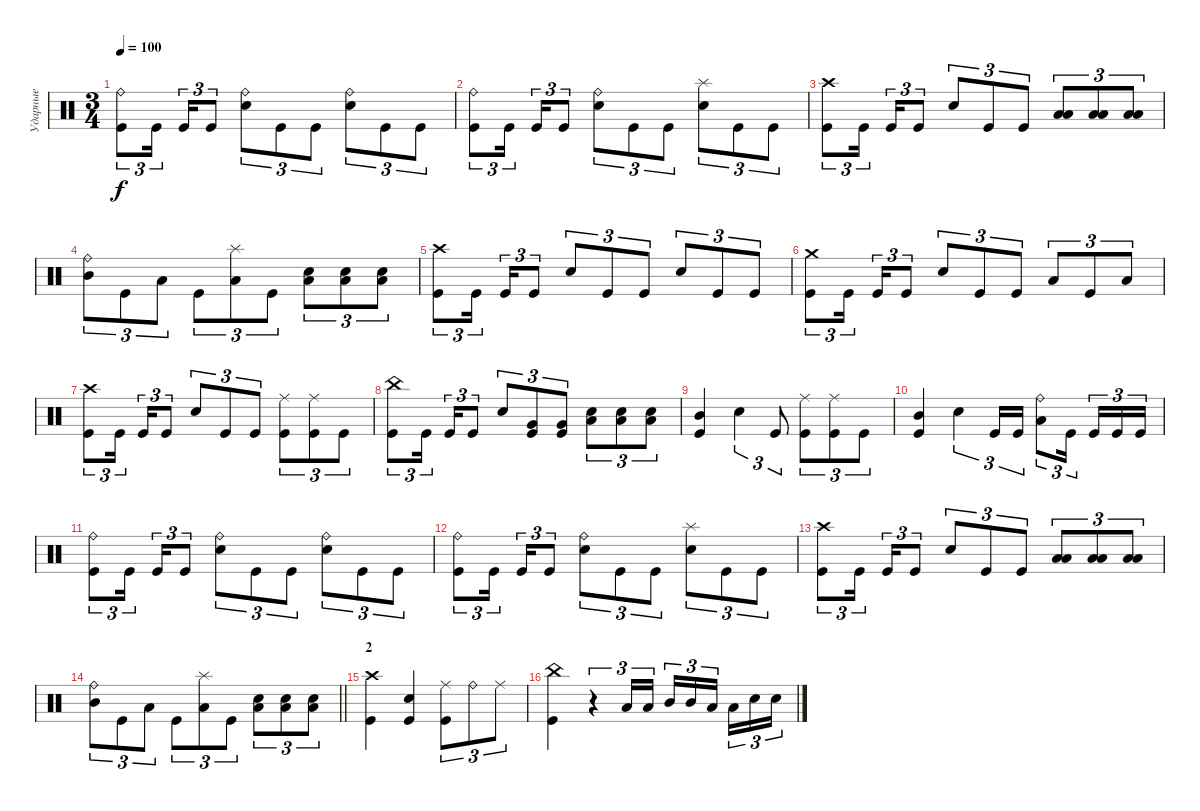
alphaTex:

\track ("Ударные" "Ударные") {instrument percussion}
\staff {score}
\articulation defaults
\ts (3 4)
\tempo 100
\clef neutral
\ks c
("Ride (bell)" "Kick (hit)").8{tu (3 2) dy f} "Kick (hit)".16{tu (3 2) beam splitsecondary} "Kick (hit)".16{tu (3 2)} "Kick (hit)".8{tu (3 2)} ("Ride (bell)" "Electric Snare (hit)").8{tu (3 2)} "Kick (hit)".8{tu (3 2)} "Kick (hit)".8{tu (3 2)} ("Ride (bell)" "Electric Snare (hit)").8{tu (3 2)} "Kick (hit)".8{tu (3 2)} "Kick (hit)".8{tu (3 2)} |
("Ride (bell)" "Kick (hit)").8{tu (3 2)} "Kick (hit)".16{tu (3 2) beam splitsecondary} "Kick (hit)".16{tu (3 2)} "Kick (hit)".8{tu (3 2)} ("Ride (bell)" "Electric Snare (hit)").8{tu (3 2)} "Kick (hit)".8{tu (3 2)} "Kick (hit)".8{tu (3 2)} ("Splash (hit)" "Electric Snare (hit)").8{tu (3 2)} "Kick (hit)".8{tu (3 2)} "Kick (hit)".8{tu (3 2)} |
("Crash high (hit)" "Kick (hit)").8{tu (3 2)} "Kick (hit)".16{tu (3 2) beam splitsecondary} "Kick (hit)".16{tu (3 2)} "Kick (hit)".8{tu (3 2)} "Electric Snare (hit)".8{tu (3 2)} "Kick (hit)".8{tu (3 2)} "Kick (hit)".8{tu (3 2)} ("Low Floor Tom (hit)" "Low Tom (hit)").8{tu (3 2)} ("Low Floor Tom (hit)" "Low Tom (hit)").8{tu (3 2)} ("Low Floor Tom (hit)" "Low Tom (hit)").8{tu (3 2)} |
("Ride (bell)" "Mid Tom (hit)").8{tu (3 2)} "Kick (hit)".8{tu (3 2)} "Low Tom (hit)".8{tu (3 2)} "Kick (hit)".8{tu (3 2)} ("Splash (hit)" "Low Floor Tom (hit)").8{tu (3 2)} "Kick (hit)".8{tu (3 2)} ("Low Floor Tom (hit)" "Electric Snare (hit)").8{tu (3 2)} ("Low Floor Tom (hit)" "Electric Snare (hit)").8{tu (3 2)} ("Low Floor Tom (hit)" "Electric Snare (hit)").8{tu (3 2)} |
("Crash high (hit)" "Kick (hit)").8{tu (3 2)} "Kick (hit)".16{tu (3 2) beam splitsecondary} "Kick (hit)".16{tu (3 2)} "Kick (hit)".8{tu (3 2)} "Electric Snare (hit)".8{tu (3 2)} "Kick (hit)".8{tu (3 2)} "Kick (hit)".8{tu (3 2)} "Electric Snare (hit)".8{tu (3 2)} "Kick (hit)".8{tu (3 2)} "Kick (hit)".8{tu (3 2)} |
("Crash medium (hit)" "Kick (hit)").8{tu (3 2)} "Kick (hit)".16{tu (3 2) beam splitsecondary} "Kick (hit)".16{tu (3 2)} "Kick (hit)".8{tu (3 2)} "Electric Snare (hit)".8{tu (3 2)} "Kick (hit)".8{tu (3 2)} "Kick (hit)".8{tu (3 2)} "Low Tom (hit)".8{tu (3 2)} "Kick (hit)".8{tu (3 2)} "Low Tom (hit)".8{tu (3 2)} |
("Crash high (hit)" "Kick (hit)").8{tu (3 2)} "Kick (hit)".16{tu (3 2) beam splitsecondary} "Kick (hit)".16{tu (3 2)} "Kick (hit)".8{tu (3 2)} "Electric Snare (hit)".8{tu (3 2)} "Kick (hit)".8{tu (3 2)} "Kick (hit)".8{tu (3 2)} ("Ride (middle)" "Kick (hit)").8{tu (3 2)} ("Ride (middle)" "Kick (hit)").8{tu (3 2)} "Kick (hit)".8{tu (3 2)} |
("China (hit)" "Kick (hit)").8{tu (3 2)} "Kick (hit)".16{tu (3 2) beam splitsecondary} "Kick (hit)".16{tu (3 2)} "Kick (hit)".8{tu (3 2)} "Electric Snare (hit)".8{tu (3 2)} ("Very Low Tom (hit)" "Kick (hit)").8{tu (3 2)} ("Very Low Tom (hit)" "Kick (hit)").8{tu (3 2)} ("Low Floor Tom (hit)" "Electric Snare (hit)").8{tu (3 2)} ("Low Floor Tom (hit)" "Electric Snare (hit)").8{tu (3 2)} ("Low Floor Tom (hit)" "Electric Snare (hit)").8{tu (3 2)} |
("Mid Tom (hit)" "Kick (hit)").4 "Electric Snare (hit)".4{tu (3 2)} "Kick (hit)".8{tu (3 2)} ("Ride (middle)" "Kick (hit)").8{tu (3 2)} ("Ride (middle)" "Kick (hit)").8{tu (3 2)} "Kick (hit)".8{tu (3 2)} |
("Mid Tom (hit)" "Kick (hit)").4 "Electric Snare (hit)".4{tu (3 2)} "Kick (hit)".16{tu (3 2)} "Kick (hit)".16{tu (3 2)} ("Ride (bell)" "Low Floor Tom (hit)").8{tu (3 2)} "Kick (hit)".16{tu (3 2) beam splitsecondary} "Kick (hit)".16{tu (3 2)} "Kick (hit)".16{tu (3 2)} "Kick (hit)".16{tu (3 2)} |
("Ride (bell)" "Kick (hit)").8{tu (3 2)} "Kick (hit)".16{tu (3 2) beam splitsecondary} "Kick (hit)".16{tu (3 2)} "Kick (hit)".8{tu (3 2)} ("Ride (bell)" "Electric Snare (hit)").8{tu (3 2)} "Kick (hit)".8{tu (3 2)} "Kick (hit)".8{tu (3 2)} ("Ride (bell)" "Electric Snare (hit)").8{tu (3 2)} "Kick (hit)".8{tu (3 2)} "Kick (hit)".8{tu (3 2)} |
("Ride (bell)" "Kick (hit)").8{tu (3 2)} "Kick (hit)".16{tu (3 2) beam splitsecondary} "Kick (hit)".16{tu (3 2)} "Kick (hit)".8{tu (3 2)} ("Ride (bell)" "Electric Snare (hit)").8{tu (3 2)} "Kick (hit)".8{tu (3 2)} "Kick (hit)".8{tu (3 2)} ("Splash (hit)" "Electric Snare (hit)").8{tu (3 2)} "Kick (hit)".8{tu (3 2)} "Kick (hit)".8{tu (3 2)} |
("Crash high (hit)" "Kick (hit)").8{tu (3 2)} "Kick (hit)".16{tu (3 2) beam splitsecondary} "Kick (hit)".16{tu (3 2)} "Kick (hit)".8{tu (3 2)} "Electric Snare (hit)".8{tu (3 2)} "Kick (hit)".8{tu (3 2)} "Kick (hit)".8{tu (3 2)} ("Low Floor Tom (hit)" "Low Tom (hit)").8{tu (3 2)} ("Low Floor Tom (hit)" "Low Tom (hit)").8{tu (3 2)} ("Low Floor Tom (hit)" "Low Tom (hit)").8{tu (3 2)} |
\barLineRight lightlight
("Ride (bell)" "Mid Tom (hit)").8{tu (3 2)} "Kick (hit)".8{tu (3 2)} "Low Tom (hit)".8{tu (3 2)} "Kick (hit)".8{tu (3 2)} ("Splash (hit)" "Low Floor Tom (hit)").8{tu (3 2)} "Kick (hit)".8{tu (3 2)} ("Low Floor Tom (hit)" "Electric Snare (hit)").8{tu (3 2)} ("Low Floor Tom (hit)" "Electric Snare (hit)").8{tu (3 2)} ("Low Floor Tom (hit)" "Electric Snare (hit)").8{tu (3 2)} |
\section ("" "2")
("Crash high (hit)" "Kick (hit)").4 ("Electric Snare (hit)" "Kick (hit)").4 ("Ride (middle)" "Kick (hit)").8{tu (3 2)} "Ride (bell)".8{tu (3 2)} "Ride (middle)".8{tu (3 2)} |
("China (hit)" "Kick (hit)").4 r.4{tu (3 2)} "Low Tom (hit)".16{tu (3 2)} "Low Tom (hit)".16{tu (3 2)} "Mid Tom (hit)".16{tu (3 2)} "Mid Tom (hit)".16{tu (3 2)} "Low Tom (hit)".16{tu (3 2) beam splitsecondary} "Low Tom (hit)".16{tu (3 2)} "Electric Snare (hit)".16{tu (3 2)} "Electric Snare (hit)".16{tu (3 2)}
